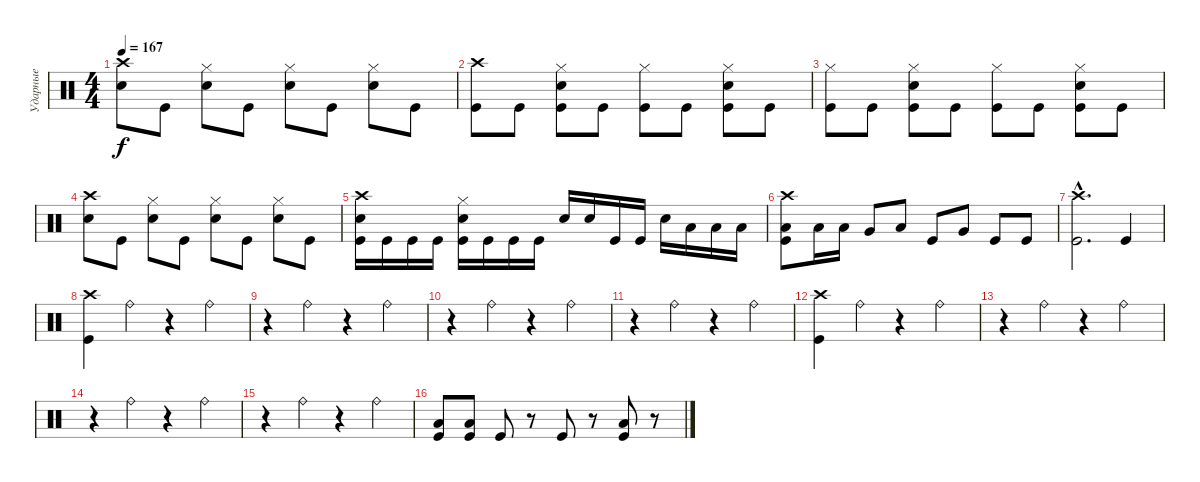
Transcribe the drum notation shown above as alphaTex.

\track ("Ударные" "Ударные") {instrument percussion}
\staff {score}
\articulation defaults
\ts (4 4)
\tempo 167
\clef neutral
\ks c
("Crash high (hit)" "Electric Snare (hit)").8{dy f} "Kick (hit)".8 ("Hi-Hat (closed)" "Electric Snare (hit)").8 "Kick (hit)".8 ("Hi-Hat (closed)" "Electric Snare (hit)").8 "Kick (hit)".8 ("Hi-Hat (closed)" "Electric Snare (hit)").8 "Kick (hit)".8 |
("Crash high (hit)" "Kick (hit)").8 "Kick (hit)".8 ("Hi-Hat (closed)" "Electric Snare (hit)" "Kick (hit)").8 "Kick (hit)".8 ("Hi-Hat (closed)" "Kick (hit)").8 "Kick (hit)".8 ("Hi-Hat (closed)" "Electric Snare (hit)" "Kick (hit)").8 "Kick (hit)".8 |
("Hi-Hat (closed)" "Kick (hit)").8 "Kick (hit)".8 ("Hi-Hat (closed)" "Electric Snare (hit)" "Kick (hit)").8 "Kick (hit)".8 ("Hi-Hat (closed)" "Kick (hit)").8 "Kick (hit)".8 ("Hi-Hat (closed)" "Electric Snare (hit)" "Kick (hit)").8 "Kick (hit)".8 |
("Crash high (hit)" "Electric Snare (hit)").8 "Kick (hit)".8 ("Hi-Hat (closed)" "Electric Snare (hit)").8 "Kick (hit)".8 ("Hi-Hat (closed)" "Electric Snare (hit)").8 "Kick (hit)".8 ("Hi-Hat (closed)" "Electric Snare (hit)").8 "Kick (hit)".8 |
("Crash high (hit)" "Electric Snare (hit)" "Kick (hit)").16 "Kick (hit)".16 "Kick (hit)".16 "Kick (hit)".16 ("Hi-Hat (closed)" "Electric Snare (hit)" "Kick (hit)").16 "Kick (hit)".16 "Kick (hit)".16 "Kick (hit)".16 "Electric Snare (hit)".16 "Electric Snare (hit)".16 "Kick (hit)".16 "Kick (hit)".16 "Electric Snare (hit)".16 "Low Tom (hit)".16 "Low Tom (hit)".16 "Low Tom (hit)".16 |
("Crash high (hit)" "Low Tom (hit)" "Kick (hit)").8 "Low Tom (hit)".16 "Low Tom (hit)".16 "Very Low Tom (hit)".8 "Low Tom (hit)".8 "Kick (hit)".8 "Very Low Tom (hit)".8 "Kick (hit)".8 "Kick (hit)".8 |
("Crash high (hit)"{hac} "Kick (hit)"{hac}).2{d} "Kick (hit)".4 |
("Crash high (hit)" "Kick (hit)").4 "Ride (bell)".4 r.4 "Ride (bell)".4 |
r.4 "Ride (bell)".4 r.4 "Ride (bell)".4 |
r.4 "Ride (bell)".4 r.4 "Ride (bell)".4 |
r.4 "Ride (bell)".4 r.4 "Ride (bell)".4 |
("Crash high (hit)" "Kick (hit)").4 "Ride (bell)".4 r.4 "Ride (bell)".4 |
r.4 "Ride (bell)".4 r.4 "Ride (bell)".4 |
r.4 "Ride (bell)".4 r.4 "Ride (bell)".4 |
r.4 "Ride (bell)".4 r.4 "Ride (bell)".4 |
("Low Tom (hit)" "Kick (hit)").8 ("Low Tom (hit)" "Kick (hit)").8 "Kick (hit)".8 r.8 "Kick (hit)".8 r.8 ("Low Tom (hit)" "Kick (hit)").8 r.8
